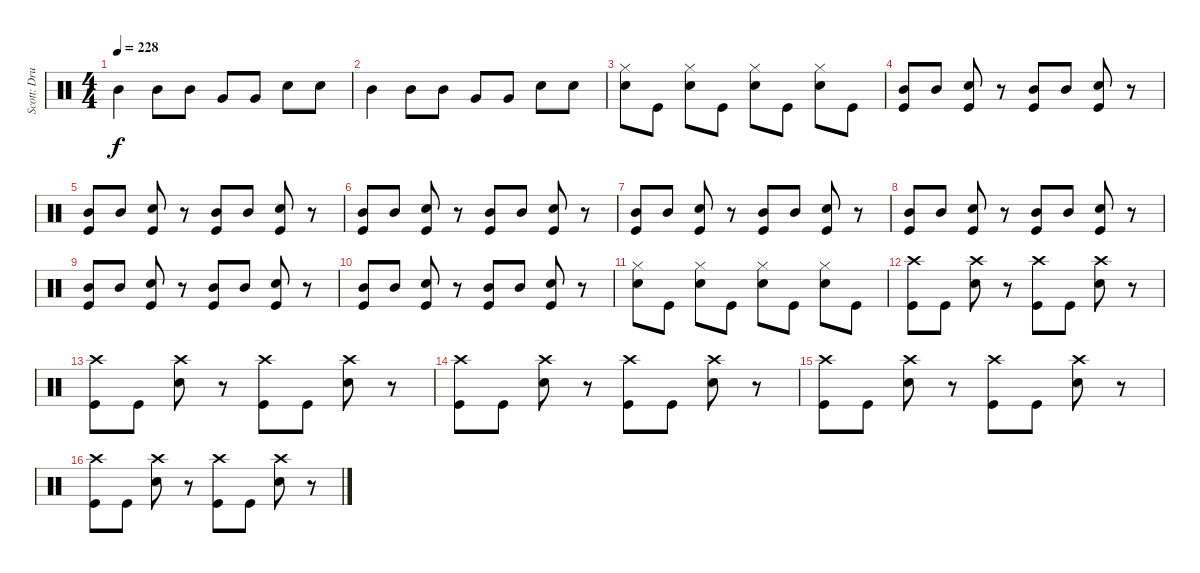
\track ("Scott: Drums" "Scott: Dru") {instrument percussion}
\staff {score}
\articulation defaults
\ts (4 4)
\tempo 228
\clef neutral
\ks c "Mid Tom (hit)".4{dy f} "Mid Tom (hit)".8 "Mid Tom (hit)".8 "Very Low Tom (hit)".8 "Very Low Tom (hit)".8 "Electric Snare (hit)".8 "Electric Snare (hit)".8
|
"Mid Tom (hit)".4 "Mid Tom (hit)".8 "Mid Tom (hit)".8 "Very Low Tom (hit)".8 "Very Low Tom (hit)".8 "Electric Snare (hit)".8 "Electric Snare (hit)".8 |
("Hi-Hat (closed)" "Electric Snare (hit)").8 "Kick (hit)".8 ("Hi-Hat (closed)" "Electric Snare (hit)").8 "Kick (hit)".8 ("Hi-Hat (closed)" "Electric Snare (hit)").8 "Kick (hit)".8 ("Hi-Hat (closed)" "Electric Snare (hit)").8 "Kick (hit)".8 |
("Mid Tom (hit)" "Kick (hit)").8 "Mid Tom (hit)".8 ("Electric Snare (hit)" "Kick (hit)").8 r.8 ("Mid Tom (hit)" "Kick (hit)").8 "Mid Tom (hit)".8 ("Electric Snare (hit)" "Kick (hit)").8 r.8 |
("Mid Tom (hit)" "Kick (hit)").8 "Mid Tom (hit)".8 ("Electric Snare (hit)" "Kick (hit)").8 r.8 ("Mid Tom (hit)" "Kick (hit)").8 "Mid Tom (hit)".8 ("Electric Snare (hit)" "Kick (hit)").8 r.8 |
("Mid Tom (hit)" "Kick (hit)").8 "Mid Tom (hit)".8 ("Electric Snare (hit)" "Kick (hit)").8 r.8 ("Mid Tom (hit)" "Kick (hit)").8 "Mid Tom (hit)".8 ("Electric Snare (hit)" "Kick (hit)").8 r.8 |
("Mid Tom (hit)" "Kick (hit)").8 "Mid Tom (hit)".8 ("Electric Snare (hit)" "Kick (hit)").8 r.8 ("Mid Tom (hit)" "Kick (hit)").8 "Mid Tom (hit)".8 ("Electric Snare (hit)" "Kick (hit)").8 r.8 |
("Mid Tom (hit)" "Kick (hit)").8 "Mid Tom (hit)".8 ("Electric Snare (hit)" "Kick (hit)").8 r.8 ("Mid Tom (hit)" "Kick (hit)").8 "Mid Tom (hit)".8 ("Electric Snare (hit)" "Kick (hit)").8 r.8 |
("Mid Tom (hit)" "Kick (hit)").8 "Mid Tom (hit)".8 ("Electric Snare (hit)" "Kick (hit)").8 r.8 ("Mid Tom (hit)" "Kick (hit)").8 "Mid Tom (hit)".8 ("Electric Snare (hit)" "Kick (hit)").8 r.8 |
("Mid Tom (hit)" "Kick (hit)").8 "Mid Tom (hit)".8 ("Electric Snare (hit)" "Kick (hit)").8 r.8 ("Mid Tom (hit)" "Kick (hit)").8 "Mid Tom (hit)".8 ("Electric Snare (hit)" "Kick (hit)").8 r.8 |
("Hi-Hat (closed)" "Electric Snare (hit)").8 "Kick (hit)".8 ("Hi-Hat (closed)" "Electric Snare (hit)").8 "Kick (hit)".8 ("Hi-Hat (closed)" "Electric Snare (hit)").8 "Kick (hit)".8 ("Hi-Hat (closed)" "Electric Snare (hit)").8 "Kick (hit)".8 |
("Crash high (hit)" "Kick (hit)").8 "Kick (hit)".8 ("Crash high (hit)" "Electric Snare (hit)").8 r.8 ("Crash high (hit)" "Kick (hit)").8 "Kick (hit)".8 ("Crash high (hit)" "Electric Snare (hit)").8 r.8 |
("Crash high (hit)" "Kick (hit)").8 "Kick (hit)".8 ("Crash high (hit)" "Electric Snare (hit)").8 r.8 ("Crash high (hit)" "Kick (hit)").8 "Kick (hit)".8 ("Crash high (hit)" "Electric Snare (hit)").8 r.8 |
("Crash high (hit)" "Kick (hit)").8 "Kick (hit)".8 ("Crash high (hit)" "Electric Snare (hit)").8 r.8 ("Crash high (hit)" "Kick (hit)").8 "Kick (hit)".8 ("Crash high (hit)" "Electric Snare (hit)").8 r.8 |
("Crash high (hit)" "Kick (hit)").8 "Kick (hit)".8 ("Crash high (hit)" "Electric Snare (hit)").8 r.8 ("Crash high (hit)" "Kick (hit)").8 "Kick (hit)".8 ("Crash high (hit)" "Electric Snare (hit)").8 r.8 |
("Crash high (hit)" "Kick (hit)").8 "Kick (hit)".8 ("Crash high (hit)" "Electric Snare (hit)").8 r.8 ("Crash high (hit)" "Kick (hit)").8 "Kick (hit)".8 ("Crash high (hit)" "Electric Snare (hit)").8 r.8
